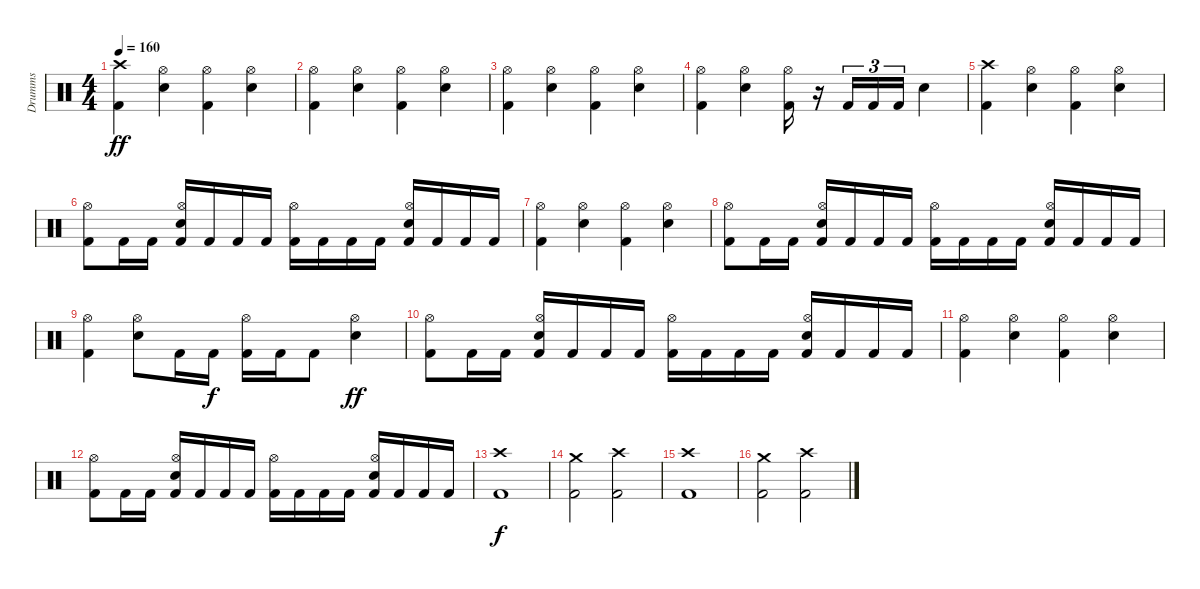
\track ("Drumms" "Drumms") {instrument percussion}
\staff {score}
\articulation defaults
\ts (4 4)
\tempo 160
\clef neutral
\ks c
("Crash high (hit)" "Kick (hit) 2").4{dy ff} ("Hi-Hat (open)" "Electric Snare (hit)").4 ("Hi-Hat (open)" "Kick (hit) 2").4 ("Hi-Hat (open)" "Electric Snare (hit)").4 |
("Hi-Hat (open)" "Kick (hit) 2").4 ("Hi-Hat (open)" "Electric Snare (hit)").4 ("Hi-Hat (open)" "Kick (hit) 2").4 ("Hi-Hat (open)" "Electric Snare (hit)").4 |
("Hi-Hat (open)" "Kick (hit) 2").4 ("Hi-Hat (open)" "Electric Snare (hit)").4 ("Hi-Hat (open)" "Kick (hit) 2").4 ("Hi-Hat (open)" "Electric Snare (hit)").4 |
("Hi-Hat (open)" "Kick (hit) 2").4 ("Hi-Hat (open)" "Electric Snare (hit)").4 ("Hi-Hat (open)" "Kick (hit) 2").16 r.16 "Kick (hit) 2".16{tu (3 2)} "Kick (hit) 2".16{tu (3 2)} "Kick (hit) 2".16{tu (3 2)} "Electric Snare (hit)".4 |
("Crash high (hit)" "Kick (hit) 2").4 ("Hi-Hat (open)" "Electric Snare (hit)").4 ("Hi-Hat (open)" "Kick (hit) 2").4 ("Hi-Hat (open)" "Electric Snare (hit)").4 |
("Hi-Hat (open)" "Kick (hit) 2").8 "Kick (hit) 2".16 "Kick (hit) 2".16 ("Hi-Hat (open)" "Electric Snare (hit)" "Kick (hit) 2").16 "Kick (hit) 2".16 "Kick (hit) 2".16 "Kick (hit) 2".16 ("Hi-Hat (open)" "Kick (hit) 2").16 "Kick (hit) 2".16 "Kick (hit) 2".16 "Kick (hit) 2".16 ("Hi-Hat (open)" "Electric Snare (hit)" "Kick (hit) 2").16 "Kick (hit) 2".16 "Kick (hit) 2".16 "Kick (hit) 2".16 |
("Hi-Hat (open)" "Kick (hit) 2").4 ("Hi-Hat (open)" "Electric Snare (hit)").4 ("Hi-Hat (open)" "Kick (hit) 2").4 ("Hi-Hat (open)" "Electric Snare (hit)").4 |
("Hi-Hat (open)" "Kick (hit) 2").8 "Kick (hit) 2".16 "Kick (hit) 2".16 ("Hi-Hat (open)" "Electric Snare (hit)" "Kick (hit) 2").16 "Kick (hit) 2".16 "Kick (hit) 2".16 "Kick (hit) 2".16 ("Hi-Hat (open)" "Kick (hit) 2").16 "Kick (hit) 2".16 "Kick (hit) 2".16 "Kick (hit) 2".16 ("Hi-Hat (open)" "Electric Snare (hit)" "Kick (hit) 2").16 "Kick (hit) 2".16 "Kick (hit) 2".16 "Kick (hit) 2".16 |
("Hi-Hat (open)" "Kick (hit) 2").4 ("Hi-Hat (open)" "Electric Snare (hit)").8 "Kick (hit) 2".16 "Kick (hit) 2".16{dy f} ("Hi-Hat (open)" "Kick (hit) 2").16 "Kick (hit) 2".16 "Kick (hit) 2".8 ("Hi-Hat (open)" "Electric Snare (hit)").4{dy ff} |
("Hi-Hat (open)" "Kick (hit) 2").8 "Kick (hit) 2".16 "Kick (hit) 2".16 ("Hi-Hat (open)" "Electric Snare (hit)" "Kick (hit) 2").16 "Kick (hit) 2".16 "Kick (hit) 2".16 "Kick (hit) 2".16 ("Hi-Hat (open)" "Kick (hit) 2").16 "Kick (hit) 2".16 "Kick (hit) 2".16 "Kick (hit) 2".16 ("Hi-Hat (open)" "Electric Snare (hit)" "Kick (hit) 2").16 "Kick (hit) 2".16 "Kick (hit) 2".16 "Kick (hit) 2".16 |
("Hi-Hat (open)" "Kick (hit) 2").4 ("Hi-Hat (open)" "Electric Snare (hit)").4 ("Hi-Hat (open)" "Kick (hit) 2").4 ("Hi-Hat (open)" "Electric Snare (hit)").4 |
("Hi-Hat (open)" "Kick (hit) 2").8 "Kick (hit) 2".16 "Kick (hit) 2".16 ("Hi-Hat (open)" "Electric Snare (hit)" "Kick (hit) 2").16 "Kick (hit) 2".16 "Kick (hit) 2".16 "Kick (hit) 2".16 ("Hi-Hat (open)" "Kick (hit) 2").16 "Kick (hit) 2".16 "Kick (hit) 2".16 "Kick (hit) 2".16 ("Hi-Hat (open)" "Electric Snare (hit)" "Kick (hit) 2").16 "Kick (hit) 2".16 "Kick (hit) 2".16 "Kick (hit) 2".16 |
("Crash high (hit)" "Kick (hit) 2").1{dy f} |
("Crash medium (hit)" "Kick (hit) 2").2 ("Crash high (hit)" "Kick (hit) 2").2 |
("Crash high (hit)" "Kick (hit) 2").1 |
("Crash medium (hit)" "Kick (hit) 2").2 ("Crash high (hit)" "Kick (hit) 2").2
